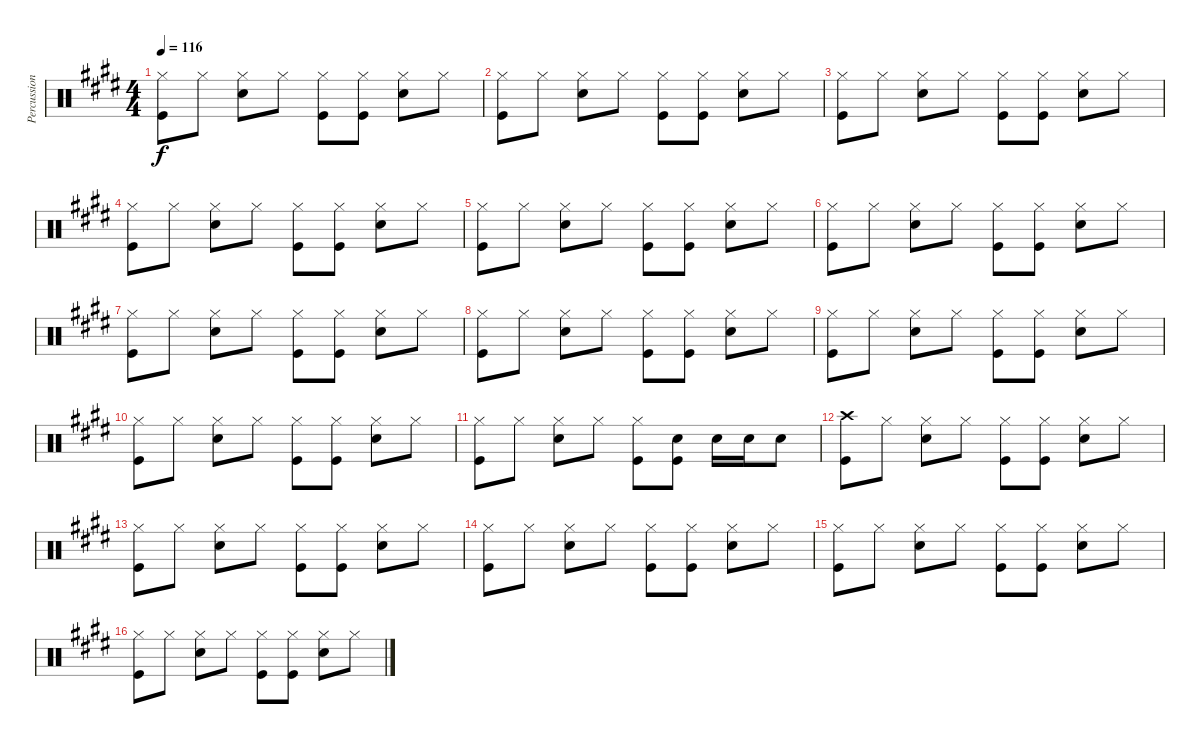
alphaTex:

\track ("Percussion" "Percussion") {instrument percussion}
\staff {score}
\articulation defaults
\ts (4 4)
\tempo 116
\clef neutral
\ks e
("Hi-Hat (closed)" "Kick (hit)").8{dy f} "Hi-Hat (closed)".8 ("Hi-Hat (closed)" "Snare (hit) 2").8 "Hi-Hat (closed)".8 ("Hi-Hat (closed)" "Kick (hit)").8 ("Hi-Hat (closed)" "Kick (hit)").8 ("Hi-Hat (closed)" "Snare (hit) 2").8 "Hi-Hat (closed)".8 |
("Hi-Hat (closed)" "Kick (hit)").8 "Hi-Hat (closed)".8 ("Hi-Hat (closed)" "Snare (hit) 2").8 "Hi-Hat (closed)".8 ("Hi-Hat (closed)" "Kick (hit)").8 ("Hi-Hat (closed)" "Kick (hit)").8 ("Hi-Hat (closed)" "Snare (hit) 2").8 "Hi-Hat (closed)".8 |
("Hi-Hat (closed)" "Kick (hit)").8 "Hi-Hat (closed)".8 ("Hi-Hat (closed)" "Snare (hit) 2").8 "Hi-Hat (closed)".8 ("Hi-Hat (closed)" "Kick (hit)").8 ("Hi-Hat (closed)" "Kick (hit)").8 ("Hi-Hat (closed)" "Snare (hit) 2").8 "Hi-Hat (closed)".8 |
("Hi-Hat (closed)" "Kick (hit)").8 "Hi-Hat (closed)".8 ("Hi-Hat (closed)" "Snare (hit) 2").8 "Hi-Hat (closed)".8 ("Hi-Hat (closed)" "Kick (hit)").8 ("Hi-Hat (closed)" "Kick (hit)").8 ("Hi-Hat (closed)" "Snare (hit) 2").8 "Hi-Hat (closed)".8 |
("Hi-Hat (closed)" "Kick (hit)").8 "Hi-Hat (closed)".8 ("Hi-Hat (closed)" "Snare (hit) 2").8 "Hi-Hat (closed)".8 ("Hi-Hat (closed)" "Kick (hit)").8 ("Hi-Hat (closed)" "Kick (hit)").8 ("Hi-Hat (closed)" "Snare (hit) 2").8 "Hi-Hat (closed)".8 |
("Hi-Hat (closed)" "Kick (hit)").8 "Hi-Hat (closed)".8 ("Hi-Hat (closed)" "Snare (hit) 2").8 "Hi-Hat (closed)".8 ("Hi-Hat (closed)" "Kick (hit)").8 ("Hi-Hat (closed)" "Kick (hit)").8 ("Hi-Hat (closed)" "Snare (hit) 2").8 "Hi-Hat (closed)".8 |
("Hi-Hat (closed)" "Kick (hit)").8 "Hi-Hat (closed)".8 ("Hi-Hat (closed)" "Snare (hit) 2").8 "Hi-Hat (closed)".8 ("Hi-Hat (closed)" "Kick (hit)").8 ("Hi-Hat (closed)" "Kick (hit)").8 ("Hi-Hat (closed)" "Snare (hit) 2").8 "Hi-Hat (closed)".8 |
("Hi-Hat (closed)" "Kick (hit)").8 "Hi-Hat (closed)".8 ("Hi-Hat (closed)" "Snare (hit) 2").8 "Hi-Hat (closed)".8 ("Hi-Hat (closed)" "Kick (hit)").8 ("Hi-Hat (closed)" "Kick (hit)").8 ("Hi-Hat (closed)" "Snare (hit) 2").8 "Hi-Hat (closed)".8 |
("Hi-Hat (closed)" "Kick (hit)").8 "Hi-Hat (closed)".8 ("Hi-Hat (closed)" "Snare (hit) 2").8 "Hi-Hat (closed)".8 ("Hi-Hat (closed)" "Kick (hit)").8 ("Hi-Hat (closed)" "Kick (hit)").8 ("Hi-Hat (closed)" "Snare (hit) 2").8 "Hi-Hat (closed)".8 |
("Hi-Hat (closed)" "Kick (hit)").8 "Hi-Hat (closed)".8 ("Hi-Hat (closed)" "Snare (hit) 2").8 "Hi-Hat (closed)".8 ("Hi-Hat (closed)" "Kick (hit)").8 ("Hi-Hat (closed)" "Kick (hit)").8 ("Hi-Hat (closed)" "Snare (hit) 2").8 "Hi-Hat (closed)".8 |
("Hi-Hat (closed)" "Kick (hit)").8 "Hi-Hat (closed)".8 ("Hi-Hat (closed)" "Snare (hit) 2").8 "Hi-Hat (closed)".8 ("Hi-Hat (closed)" "Kick (hit)").8 ("Snare (hit) 2" "Kick (hit)").8 "Snare (hit) 2".16 "Snare (hit) 2".16 "Snare (hit) 2".8 |
("Crash high (hit)" "Kick (hit)").8 "Hi-Hat (closed)".8 ("Hi-Hat (closed)" "Snare (hit) 2").8 "Hi-Hat (closed)".8 ("Hi-Hat (closed)" "Kick (hit)").8 ("Hi-Hat (closed)" "Kick (hit)").8 ("Hi-Hat (closed)" "Snare (hit) 2").8 "Hi-Hat (closed)".8 |
("Hi-Hat (closed)" "Kick (hit)").8 "Hi-Hat (closed)".8 ("Hi-Hat (closed)" "Snare (hit) 2").8 "Hi-Hat (closed)".8 ("Hi-Hat (closed)" "Kick (hit)").8 ("Hi-Hat (closed)" "Kick (hit)").8 ("Hi-Hat (closed)" "Snare (hit) 2").8 "Hi-Hat (closed)".8 |
("Hi-Hat (closed)" "Kick (hit)").8 "Hi-Hat (closed)".8 ("Hi-Hat (closed)" "Snare (hit) 2").8 "Hi-Hat (closed)".8 ("Hi-Hat (closed)" "Kick (hit)").8 ("Hi-Hat (closed)" "Kick (hit)").8 ("Hi-Hat (closed)" "Snare (hit) 2").8 "Hi-Hat (closed)".8 |
("Hi-Hat (closed)" "Kick (hit)").8 "Hi-Hat (closed)".8 ("Hi-Hat (closed)" "Snare (hit) 2").8 "Hi-Hat (closed)".8 ("Hi-Hat (closed)" "Kick (hit)").8 ("Hi-Hat (closed)" "Kick (hit)").8 ("Hi-Hat (closed)" "Snare (hit) 2").8 "Hi-Hat (closed)".8 |
("Hi-Hat (closed)" "Kick (hit)").8 "Hi-Hat (closed)".8 ("Hi-Hat (closed)" "Snare (hit) 2").8 "Hi-Hat (closed)".8 ("Hi-Hat (closed)" "Kick (hit)").8 ("Hi-Hat (closed)" "Kick (hit)").8 ("Hi-Hat (closed)" "Snare (hit) 2").8 "Hi-Hat (closed)".8
